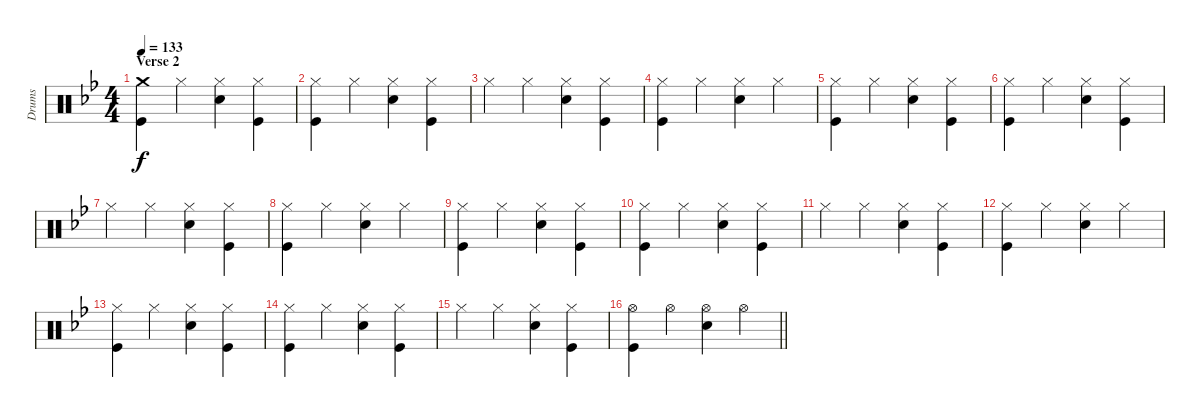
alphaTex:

\track ("Drums" "Drums") {instrument percussion}
\staff {score}
\articulation defaults
\ts (4 4)
\section ("" "Verse 2")
\tempo 133
\clef neutral
\ks bb
("Crash medium (hit)" "Kick (hit)").4{dy f} "Hi-Hat (closed)".4 ("Hi-Hat (closed)" "Snare (hit) 2").4 ("Hi-Hat (closed)" "Kick (hit)").4 |
("Hi-Hat (closed)" "Kick (hit)").4 "Hi-Hat (closed)".4 ("Hi-Hat (closed)" "Snare (hit) 2").4 ("Hi-Hat (closed)" "Kick (hit)").4 |
"Hi-Hat (closed)".4 "Hi-Hat (closed)".4 ("Hi-Hat (closed)" "Snare (hit) 2").4 ("Hi-Hat (closed)" "Kick (hit)").4 |
("Hi-Hat (closed)" "Kick (hit)").4 "Hi-Hat (closed)".4 ("Hi-Hat (closed)" "Snare (hit) 2").4 "Hi-Hat (closed)".4 |
("Hi-Hat (closed)" "Kick (hit)").4 "Hi-Hat (closed)".4 ("Hi-Hat (closed)" "Snare (hit) 2").4 ("Hi-Hat (closed)" "Kick (hit)").4 |
("Hi-Hat (closed)" "Kick (hit)").4 "Hi-Hat (closed)".4 ("Hi-Hat (closed)" "Snare (hit) 2").4 ("Hi-Hat (closed)" "Kick (hit)").4 |
"Hi-Hat (closed)".4 "Hi-Hat (closed)".4 ("Hi-Hat (closed)" "Snare (hit) 2").4 ("Hi-Hat (closed)" "Kick (hit)").4 |
("Hi-Hat (closed)" "Kick (hit)").4 "Hi-Hat (closed)".4 ("Hi-Hat (closed)" "Snare (hit) 2").4 "Hi-Hat (closed)".4 |
("Hi-Hat (closed)" "Kick (hit)").4 "Hi-Hat (closed)".4 ("Hi-Hat (closed)" "Snare (hit) 2").4 ("Hi-Hat (closed)" "Kick (hit)").4 |
("Hi-Hat (closed)" "Kick (hit)").4 "Hi-Hat (closed)".4 ("Hi-Hat (closed)" "Snare (hit) 2").4 ("Hi-Hat (closed)" "Kick (hit)").4 |
"Hi-Hat (closed)".4 "Hi-Hat (closed)".4 ("Hi-Hat (closed)" "Snare (hit) 2").4 ("Hi-Hat (closed)" "Kick (hit)").4 |
("Hi-Hat (closed)" "Kick (hit)").4 "Hi-Hat (closed)".4 ("Hi-Hat (closed)" "Snare (hit) 2").4 "Hi-Hat (closed)".4 |
("Hi-Hat (closed)" "Kick (hit)").4 "Hi-Hat (closed)".4 ("Hi-Hat (closed)" "Snare (hit) 2").4 ("Hi-Hat (closed)" "Kick (hit)").4 |
("Hi-Hat (closed)" "Kick (hit)").4 "Hi-Hat (closed)".4 ("Hi-Hat (closed)" "Snare (hit) 2").4 ("Hi-Hat (closed)" "Kick (hit)").4 |
"Hi-Hat (closed)".4 "Hi-Hat (closed)".4 ("Hi-Hat (closed)" "Snare (hit) 2").4 ("Hi-Hat (closed)" "Kick (hit)").4 |
\barLineRight lightlight
("Hi-Hat (open)" "Kick (hit)").4 "Hi-Hat (open)".4 ("Hi-Hat (open)" "Snare (hit) 2").4 "Hi-Hat (open)".4
